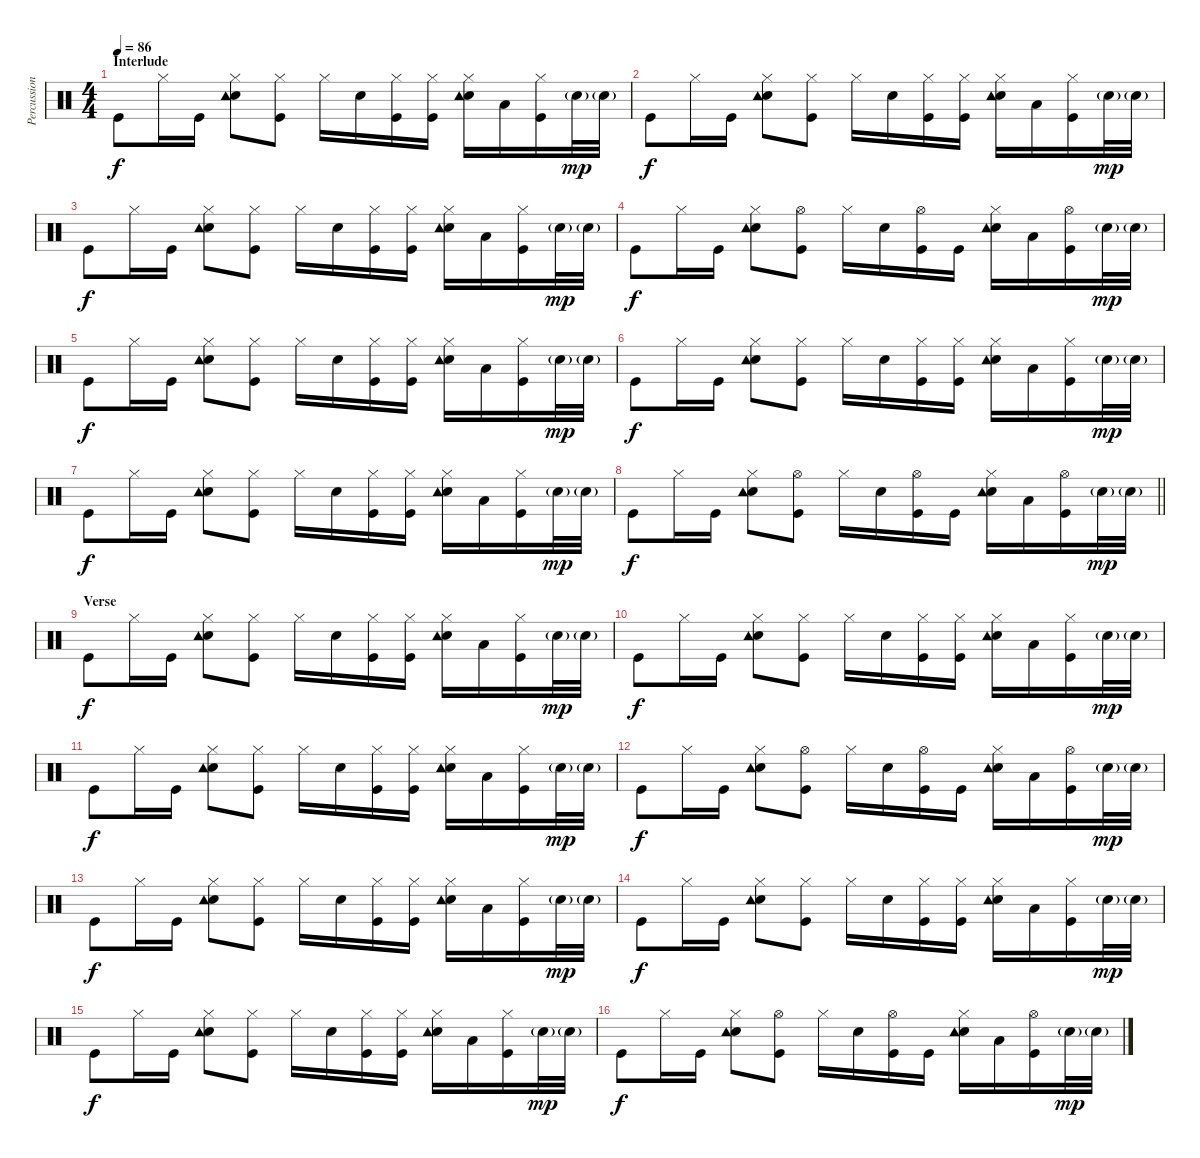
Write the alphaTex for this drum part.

\track ("Percussion" "Percussion") {instrument percussion}
\staff {score}
\articulation defaults
\ts (4 4)
\section ("" "Interlude")
\tempo 86
\clef neutral
\ks c "Kick (hit)".8{dy f} "Hi-Hat (closed)".16 "Kick (hit)".16
("Snare (hit) 2" "Hi-Hat (closed)" "Tambourine (hit)").8 ("Hi-Hat (closed)" "Kick (hit)").8 "Hi-Hat (closed)".16 "Snare (hit) 2".16 ("Kick (hit)" "Hi-Hat (closed)").16 ("Kick (hit)" "Hi-Hat (closed)").16 ("Snare (hit) 2" "Hi-Hat (closed)" "Tambourine (hit)").16 "Low Tom (hit)".16 ("Hi-Hat (closed)" "Kick (hit)").16 "Snare (hit) 2"{g}.32{dy mp} "Snare (hit) 2"{g}.32 |
"Kick (hit)".8{dy f} "Hi-Hat (closed)".16 "Kick (hit)".16 ("Snare (hit) 2" "Hi-Hat (closed)" "Tambourine (hit)").8 ("Hi-Hat (closed)" "Kick (hit)").8 "Hi-Hat (closed)".16 "Snare (hit) 2".16 ("Kick (hit)" "Hi-Hat (closed)").16 ("Kick (hit)" "Hi-Hat (closed)").16 ("Snare (hit) 2" "Hi-Hat (closed)" "Tambourine (hit)").16 "Low Tom (hit)".16 ("Hi-Hat (closed)" "Kick (hit)").16 "Snare (hit) 2"{g}.32{dy mp} "Snare (hit) 2"{g}.32 |
"Kick (hit)".8{dy f} "Hi-Hat (closed)".16 "Kick (hit)".16 ("Snare (hit) 2" "Hi-Hat (closed)" "Tambourine (hit)").8 ("Hi-Hat (closed)" "Kick (hit)").8 "Hi-Hat (closed)".16 "Snare (hit) 2".16 ("Kick (hit)" "Hi-Hat (closed)").16 ("Kick (hit)" "Hi-Hat (closed)").16 ("Snare (hit) 2" "Hi-Hat (closed)" "Tambourine (hit)").16 "Low Tom (hit)".16 ("Hi-Hat (closed)" "Kick (hit)").16 "Snare (hit) 2"{g}.32{dy mp} "Snare (hit) 2"{g}.32 |
"Kick (hit)".8{dy f} "Hi-Hat (closed)".16 "Kick (hit)".16 ("Snare (hit) 2" "Hi-Hat (closed)" "Tambourine (hit)").8 ("Hi-Hat (open)" "Kick (hit)").8 "Hi-Hat (closed)".16 "Snare (hit) 2".16 ("Kick (hit)" "Hi-Hat (open)").16 "Kick (hit)".16 ("Snare (hit) 2" "Tambourine (hit)" "Hi-Hat (closed)").16 "Low Tom (hit)".16 ("Hi-Hat (open)" "Kick (hit)").16 "Snare (hit) 2"{g}.32{dy mp} "Snare (hit) 2"{g}.32 |
"Kick (hit)".8{dy f} "Hi-Hat (closed)".16 "Kick (hit)".16 ("Snare (hit) 2" "Hi-Hat (closed)" "Tambourine (hit)").8 ("Hi-Hat (closed)" "Kick (hit)").8 "Hi-Hat (closed)".16 "Snare (hit) 2".16 ("Kick (hit)" "Hi-Hat (closed)").16 ("Kick (hit)" "Hi-Hat (closed)").16 ("Snare (hit) 2" "Hi-Hat (closed)" "Tambourine (hit)").16 "Low Tom (hit)".16 ("Hi-Hat (closed)" "Kick (hit)").16 "Snare (hit) 2"{g}.32{dy mp} "Snare (hit) 2"{g}.32 |
"Kick (hit)".8{dy f} "Hi-Hat (closed)".16 "Kick (hit)".16 ("Snare (hit) 2" "Hi-Hat (closed)" "Tambourine (hit)").8 ("Hi-Hat (closed)" "Kick (hit)").8 "Hi-Hat (closed)".16 "Snare (hit) 2".16 ("Kick (hit)" "Hi-Hat (closed)").16 ("Kick (hit)" "Hi-Hat (closed)").16 ("Snare (hit) 2" "Hi-Hat (closed)" "Tambourine (hit)").16 "Low Tom (hit)".16 ("Hi-Hat (closed)" "Kick (hit)").16 "Snare (hit) 2"{g}.32{dy mp} "Snare (hit) 2"{g}.32 |
"Kick (hit)".8{dy f} "Hi-Hat (closed)".16 "Kick (hit)".16 ("Snare (hit) 2" "Hi-Hat (closed)" "Tambourine (hit)").8 ("Hi-Hat (closed)" "Kick (hit)").8 "Hi-Hat (closed)".16 "Snare (hit) 2".16 ("Kick (hit)" "Hi-Hat (closed)").16 ("Kick (hit)" "Hi-Hat (closed)").16 ("Snare (hit) 2" "Hi-Hat (closed)" "Tambourine (hit)").16 "Low Tom (hit)".16 ("Hi-Hat (closed)" "Kick (hit)").16 "Snare (hit) 2"{g}.32{dy mp} "Snare (hit) 2"{g}.32 |
\barLineRight lightlight "Kick (hit)".8{dy f} "Hi-Hat (closed)".16 "Kick (hit)".16
("Snare (hit) 2" "Hi-Hat (closed)" "Tambourine (hit)").8 ("Hi-Hat (open)" "Kick (hit)").8 "Hi-Hat (closed)".16 "Snare (hit) 2".16 ("Kick (hit)" "Hi-Hat (open)").16 "Kick (hit)".16 ("Snare (hit) 2" "Tambourine (hit)" "Hi-Hat (closed)").16 "Low Tom (hit)".16 ("Hi-Hat (open)" "Kick (hit)").16 "Snare (hit) 2"{g}.32{dy mp} "Snare (hit) 2"{g}.32 |
\section ("" "Verse")
"Kick (hit)".8{dy f} "Hi-Hat (closed)".16 "Kick (hit)".16 ("Snare (hit) 2" "Hi-Hat (closed)" "Tambourine (hit)").8 ("Hi-Hat (closed)" "Kick (hit)").8 "Hi-Hat (closed)".16 "Snare (hit) 2".16 ("Kick (hit)" "Hi-Hat (closed)").16 ("Kick (hit)" "Hi-Hat (closed)").16 ("Snare (hit) 2" "Hi-Hat (closed)" "Tambourine (hit)").16 "Low Tom (hit)".16 ("Hi-Hat (closed)" "Kick (hit)").16 "Snare (hit) 2"{g}.32{dy mp} "Snare (hit) 2"{g}.32 |
"Kick (hit)".8{dy f} "Hi-Hat (closed)".16 "Kick (hit)".16 ("Snare (hit) 2" "Hi-Hat (closed)" "Tambourine (hit)").8 ("Hi-Hat (closed)" "Kick (hit)").8 "Hi-Hat (closed)".16 "Snare (hit) 2".16 ("Kick (hit)" "Hi-Hat (closed)").16 ("Kick (hit)" "Hi-Hat (closed)").16 ("Snare (hit) 2" "Hi-Hat (closed)" "Tambourine (hit)").16 "Low Tom (hit)".16 ("Hi-Hat (closed)" "Kick (hit)").16 "Snare (hit) 2"{g}.32{dy mp} "Snare (hit) 2"{g}.32 |
"Kick (hit)".8{dy f} "Hi-Hat (closed)".16 "Kick (hit)".16 ("Snare (hit) 2" "Hi-Hat (closed)" "Tambourine (hit)").8 ("Hi-Hat (closed)" "Kick (hit)").8 "Hi-Hat (closed)".16 "Snare (hit) 2".16 ("Kick (hit)" "Hi-Hat (closed)").16 ("Kick (hit)" "Hi-Hat (closed)").16 ("Snare (hit) 2" "Hi-Hat (closed)" "Tambourine (hit)").16 "Low Tom (hit)".16 ("Hi-Hat (closed)" "Kick (hit)").16 "Snare (hit) 2"{g}.32{dy mp} "Snare (hit) 2"{g}.32 |
"Kick (hit)".8{dy f} "Hi-Hat (closed)".16 "Kick (hit)".16 ("Snare (hit) 2" "Hi-Hat (closed)" "Tambourine (hit)").8 ("Hi-Hat (open)" "Kick (hit)").8 "Hi-Hat (closed)".16 "Snare (hit) 2".16 ("Kick (hit)" "Hi-Hat (open)").16 "Kick (hit)".16 ("Snare (hit) 2" "Tambourine (hit)" "Hi-Hat (closed)").16 "Low Tom (hit)".16 ("Hi-Hat (open)" "Kick (hit)").16 "Snare (hit) 2"{g}.32{dy mp} "Snare (hit) 2"{g}.32 |
"Kick (hit)".8{dy f} "Hi-Hat (closed)".16 "Kick (hit)".16 ("Snare (hit) 2" "Hi-Hat (closed)" "Tambourine (hit)").8 ("Hi-Hat (closed)" "Kick (hit)").8 "Hi-Hat (closed)".16 "Snare (hit) 2".16 ("Kick (hit)" "Hi-Hat (closed)").16 ("Kick (hit)" "Hi-Hat (closed)").16 ("Snare (hit) 2" "Hi-Hat (closed)" "Tambourine (hit)").16 "Low Tom (hit)".16 ("Hi-Hat (closed)" "Kick (hit)").16 "Snare (hit) 2"{g}.32{dy mp} "Snare (hit) 2"{g}.32 |
"Kick (hit)".8{dy f} "Hi-Hat (closed)".16 "Kick (hit)".16 ("Snare (hit) 2" "Hi-Hat (closed)" "Tambourine (hit)").8 ("Hi-Hat (closed)" "Kick (hit)").8 "Hi-Hat (closed)".16 "Snare (hit) 2".16 ("Kick (hit)" "Hi-Hat (closed)").16 ("Kick (hit)" "Hi-Hat (closed)").16 ("Snare (hit) 2" "Hi-Hat (closed)" "Tambourine (hit)").16 "Low Tom (hit)".16 ("Hi-Hat (closed)" "Kick (hit)").16 "Snare (hit) 2"{g}.32{dy mp} "Snare (hit) 2"{g}.32 |
"Kick (hit)".8{dy f} "Hi-Hat (closed)".16 "Kick (hit)".16 ("Snare (hit) 2" "Hi-Hat (closed)" "Tambourine (hit)").8 ("Hi-Hat (closed)" "Kick (hit)").8 "Hi-Hat (closed)".16 "Snare (hit) 2".16 ("Kick (hit)" "Hi-Hat (closed)").16 ("Kick (hit)" "Hi-Hat (closed)").16 ("Snare (hit) 2" "Hi-Hat (closed)" "Tambourine (hit)").16 "Low Tom (hit)".16 ("Hi-Hat (closed)" "Kick (hit)").16 "Snare (hit) 2"{g}.32{dy mp} "Snare (hit) 2"{g}.32 |
"Kick (hit)".8{dy f} "Hi-Hat (closed)".16 "Kick (hit)".16 ("Snare (hit) 2" "Hi-Hat (closed)" "Tambourine (hit)").8 ("Hi-Hat (open)" "Kick (hit)").8 "Hi-Hat (closed)".16 "Snare (hit) 2".16 ("Kick (hit)" "Hi-Hat (open)").16 "Kick (hit)".16 ("Snare (hit) 2" "Tambourine (hit)" "Hi-Hat (closed)").16 "Low Tom (hit)".16 ("Hi-Hat (open)" "Kick (hit)").16 "Snare (hit) 2"{g}.32{dy mp} "Snare (hit) 2"{g}.32
